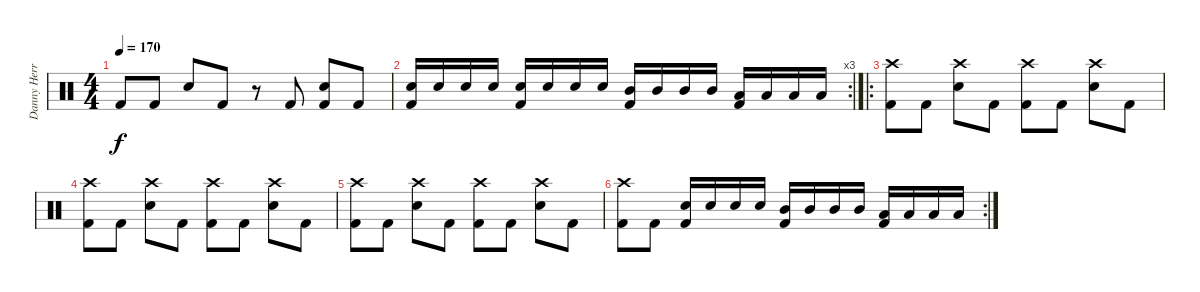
\track ("Danny Herrera" "Danny Herr") {instrument percussion}
\staff {score}
\articulation defaults
\ts (4 4)
\tempo 170
\clef neutral
\ks c "Kick (hit) 2".8{dy f} "Kick (hit) 2".8 "Electric Snare (hit)".8 "Kick (hit) 2".8
r.8 "Kick (hit) 2".8 ("Electric Snare (hit)" "Kick (hit) 2").8 "Kick (hit) 2".8 |
\rc 3
("Snare (hit) 2" "Kick (hit) 2").16 "Snare (hit) 2".16 "Snare (hit) 2".16 "Snare (hit) 2".16 ("Electric Snare (hit)" "Kick (hit) 2").16 "Electric Snare (hit)".16 "Electric Snare (hit)".16 "Electric Snare (hit)".16 ("Mid Tom (hit)" "Kick (hit) 2").16 "Mid Tom (hit)".16 "Mid Tom (hit)".16 "Mid Tom (hit)".16 ("Low Tom (hit)" "Kick (hit) 2").16 "Low Tom (hit)".16 "Low Tom (hit)".16 "Low Tom (hit)".16 |
\ro
("Crash high (hit)" "Kick (hit) 2").8 "Kick (hit) 2".8 ("Crash high (hit)" "Electric Snare (hit)").8 "Kick (hit) 2".8 ("Crash high (hit)" "Kick (hit) 2").8 "Kick (hit) 2".8 ("Crash high (hit)" "Electric Snare (hit)").8 "Kick (hit) 2".8 |
("Crash high (hit)" "Kick (hit) 2").8 "Kick (hit) 2".8 ("Crash high (hit)" "Electric Snare (hit)").8 "Kick (hit) 2".8 ("Crash high (hit)" "Kick (hit) 2").8 "Kick (hit) 2".8 ("Crash high (hit)" "Electric Snare (hit)").8 "Kick (hit) 2".8 |
("Crash high (hit)" "Kick (hit) 2").8 "Kick (hit) 2".8 ("Crash high (hit)" "Electric Snare (hit)").8 "Kick (hit) 2".8 ("Crash high (hit)" "Kick (hit) 2").8 "Kick (hit) 2".8 ("Crash high (hit)" "Electric Snare (hit)").8 "Kick (hit) 2".8 |
\rc 2
("Crash high (hit)" "Kick (hit) 2").8 "Kick (hit) 2".8 ("Electric Snare (hit)" "Kick (hit) 2").16 "Electric Snare (hit)".16 "Electric Snare (hit)".16 "Electric Snare (hit)".16 ("Mid Tom (hit)" "Kick (hit) 2").16 "Mid Tom (hit)".16 "Mid Tom (hit)".16 "Mid Tom (hit)".16 ("Low Tom (hit)" "Kick (hit) 2").16 "Low Tom (hit)".16 "Low Tom (hit)".16 "Low Tom (hit)".16
